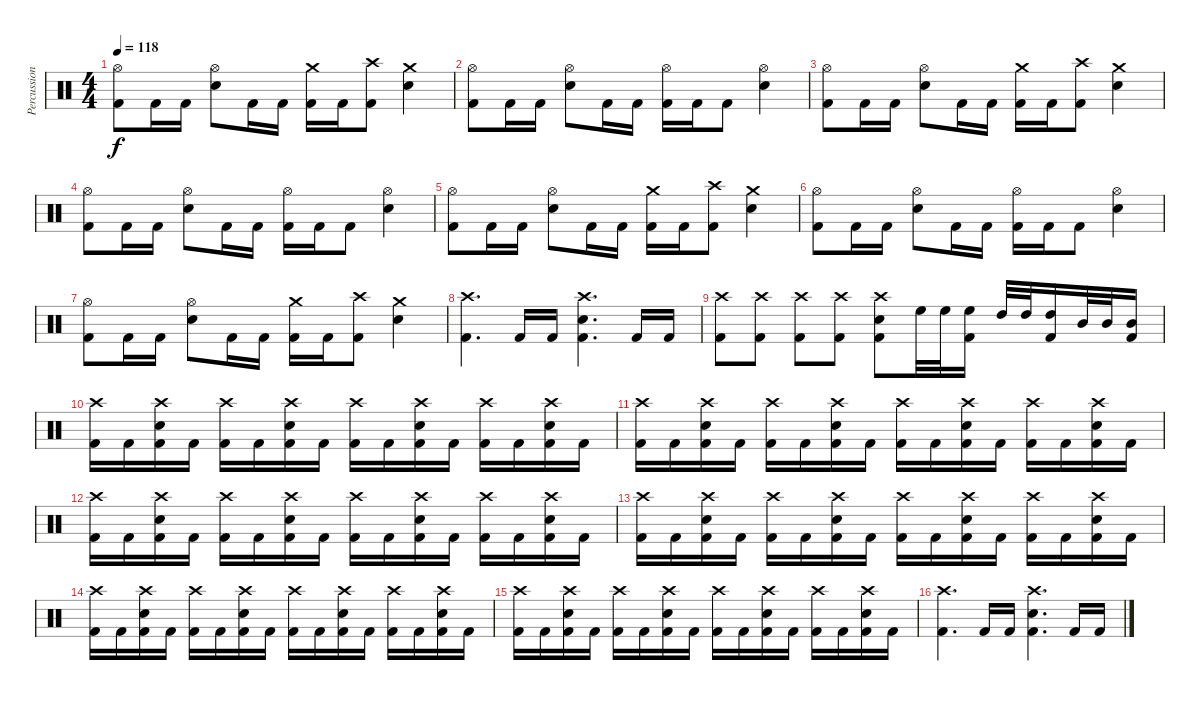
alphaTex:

\track ("Percussions" "Percussion") {instrument percussion}
\staff {score}
\articulation defaults
\ts (4 4)
\tempo 118
\clef neutral
\ks c
("Hi-Hat (open)" "Kick (hit) 2").8{dy f} "Kick (hit) 2".16 "Kick (hit) 2".16 ("Hi-Hat (open)" "Snare (hit) 2").8 "Kick (hit) 2".16 "Kick (hit) 2".16 ("Crash medium (hit)" "Kick (hit) 2").16 "Kick (hit) 2".16 ("Crash high (hit)" "Kick (hit) 2").8 ("Crash medium (hit)" "Snare (hit) 2").4 |
("Hi-Hat (open)" "Kick (hit) 2").8 "Kick (hit) 2".16 "Kick (hit) 2".16 ("Hi-Hat (open)" "Snare (hit) 2").8 "Kick (hit) 2".16 "Kick (hit) 2".16 ("Hi-Hat (open)" "Kick (hit) 2").16 "Kick (hit) 2".16 "Kick (hit) 2".8 ("Hi-Hat (open)" "Snare (hit) 2").4 |
("Hi-Hat (open)" "Kick (hit) 2").8 "Kick (hit) 2".16 "Kick (hit) 2".16 ("Hi-Hat (open)" "Snare (hit) 2").8 "Kick (hit) 2".16 "Kick (hit) 2".16 ("Crash medium (hit)" "Kick (hit) 2").16 "Kick (hit) 2".16 ("Crash high (hit)" "Kick (hit) 2").8 ("Crash medium (hit)" "Snare (hit) 2").4 |
("Hi-Hat (open)" "Kick (hit) 2").8 "Kick (hit) 2".16 "Kick (hit) 2".16 ("Hi-Hat (open)" "Snare (hit) 2").8 "Kick (hit) 2".16 "Kick (hit) 2".16 ("Hi-Hat (open)" "Kick (hit) 2").16 "Kick (hit) 2".16 "Kick (hit) 2".8 ("Hi-Hat (open)" "Snare (hit) 2").4 |
("Hi-Hat (open)" "Kick (hit) 2").8 "Kick (hit) 2".16 "Kick (hit) 2".16 ("Hi-Hat (open)" "Snare (hit) 2").8 "Kick (hit) 2".16 "Kick (hit) 2".16 ("Crash medium (hit)" "Kick (hit) 2").16 "Kick (hit) 2".16 ("Crash high (hit)" "Kick (hit) 2").8 ("Crash medium (hit)" "Snare (hit) 2").4 |
("Hi-Hat (open)" "Kick (hit) 2").8 "Kick (hit) 2".16 "Kick (hit) 2".16 ("Hi-Hat (open)" "Snare (hit) 2").8 "Kick (hit) 2".16 "Kick (hit) 2".16 ("Hi-Hat (open)" "Kick (hit) 2").16 "Kick (hit) 2".16 "Kick (hit) 2".8 ("Hi-Hat (open)" "Snare (hit) 2").4 |
("Hi-Hat (open)" "Kick (hit) 2").8 "Kick (hit) 2".16 "Kick (hit) 2".16 ("Hi-Hat (open)" "Snare (hit) 2").8 "Kick (hit) 2".16 "Kick (hit) 2".16 ("Crash medium (hit)" "Kick (hit) 2").16 "Kick (hit) 2".16 ("Crash high (hit)" "Kick (hit) 2").8 ("Crash medium (hit)" "Snare (hit) 2").4 |
("Crash high (hit)" "Kick (hit) 2").4{d} "Kick (hit) 2".16 "Kick (hit) 2".16 ("Crash high (hit)" "Snare (hit) 2" "Kick (hit) 2").4{d} "Kick (hit) 2".16 "Kick (hit) 2".16 |
("Crash high (hit)" "Kick (hit) 2").8 ("Crash high (hit)" "Kick (hit) 2").8 ("Crash high (hit)" "Kick (hit) 2").8 ("Crash high (hit)" "Kick (hit) 2").8 ("Crash high (hit)" "Snare (hit) 2" "Kick (hit) 2").8 "High Floor Tom (hit)".32 "High Floor Tom (hit)".32 ("High Floor Tom (hit)" "Kick (hit) 2").16 "High Tom (hit)".32 "High Tom (hit)".32 ("High Tom (hit)" "Kick (hit) 2").16 "Mid Tom (hit)".32 "Mid Tom (hit)".32 ("Mid Tom (hit)" "Kick (hit) 2").16 |
("Crash high (hit)" "Kick (hit) 2").16 "Kick (hit) 2".16 ("Crash high (hit)" "Snare (hit) 2" "Kick (hit) 2").16 "Kick (hit) 2".16 ("Crash high (hit)" "Kick (hit) 2").16 "Kick (hit) 2".16 ("Crash high (hit)" "Snare (hit) 2" "Kick (hit) 2").16 "Kick (hit) 2".16 ("Crash high (hit)" "Kick (hit) 2").16 "Kick (hit) 2".16 ("Crash high (hit)" "Snare (hit) 2" "Kick (hit) 2").16 "Kick (hit) 2".16 ("Crash high (hit)" "Kick (hit) 2").16 "Kick (hit) 2".16 ("Crash high (hit)" "Snare (hit) 2" "Kick (hit) 2").16 "Kick (hit) 2".16 |
("Crash high (hit)" "Kick (hit) 2").16 "Kick (hit) 2".16 ("Crash high (hit)" "Snare (hit) 2" "Kick (hit) 2").16 "Kick (hit) 2".16 ("Crash high (hit)" "Kick (hit) 2").16 "Kick (hit) 2".16 ("Crash high (hit)" "Snare (hit) 2" "Kick (hit) 2").16 "Kick (hit) 2".16 ("Crash high (hit)" "Kick (hit) 2").16 "Kick (hit) 2".16 ("Crash high (hit)" "Snare (hit) 2" "Kick (hit) 2").16 "Kick (hit) 2".16 ("Crash high (hit)" "Kick (hit) 2").16 "Kick (hit) 2".16 ("Crash high (hit)" "Snare (hit) 2" "Kick (hit) 2").16 "Kick (hit) 2".16 |
("Crash high (hit)" "Kick (hit) 2").16 "Kick (hit) 2".16 ("Crash high (hit)" "Snare (hit) 2" "Kick (hit) 2").16 "Kick (hit) 2".16 ("Crash high (hit)" "Kick (hit) 2").16 "Kick (hit) 2".16 ("Crash high (hit)" "Snare (hit) 2" "Kick (hit) 2").16 "Kick (hit) 2".16 ("Crash high (hit)" "Kick (hit) 2").16 "Kick (hit) 2".16 ("Crash high (hit)" "Snare (hit) 2" "Kick (hit) 2").16 "Kick (hit) 2".16 ("Crash high (hit)" "Kick (hit) 2").16 "Kick (hit) 2".16 ("Crash high (hit)" "Snare (hit) 2" "Kick (hit) 2").16 "Kick (hit) 2".16 |
("Crash high (hit)" "Kick (hit) 2").16 "Kick (hit) 2".16 ("Crash high (hit)" "Snare (hit) 2" "Kick (hit) 2").16 "Kick (hit) 2".16 ("Crash high (hit)" "Kick (hit) 2").16 "Kick (hit) 2".16 ("Crash high (hit)" "Snare (hit) 2" "Kick (hit) 2").16 "Kick (hit) 2".16 ("Crash high (hit)" "Kick (hit) 2").16 "Kick (hit) 2".16 ("Crash high (hit)" "Snare (hit) 2" "Kick (hit) 2").16 "Kick (hit) 2".16 ("Crash high (hit)" "Kick (hit) 2").16 "Kick (hit) 2".16 ("Crash high (hit)" "Snare (hit) 2" "Kick (hit) 2").16 "Kick (hit) 2".16 |
("Crash high (hit)" "Kick (hit) 2").16 "Kick (hit) 2".16 ("Crash high (hit)" "Snare (hit) 2" "Kick (hit) 2").16 "Kick (hit) 2".16 ("Crash high (hit)" "Kick (hit) 2").16 "Kick (hit) 2".16 ("Crash high (hit)" "Snare (hit) 2" "Kick (hit) 2").16 "Kick (hit) 2".16 ("Crash high (hit)" "Kick (hit) 2").16 "Kick (hit) 2".16 ("Crash high (hit)" "Snare (hit) 2" "Kick (hit) 2").16 "Kick (hit) 2".16 ("Crash high (hit)" "Kick (hit) 2").16 "Kick (hit) 2".16 ("Crash high (hit)" "Snare (hit) 2" "Kick (hit) 2").16 "Kick (hit) 2".16 |
("Crash high (hit)" "Kick (hit) 2").16 "Kick (hit) 2".16 ("Crash high (hit)" "Snare (hit) 2" "Kick (hit) 2").16 "Kick (hit) 2".16 ("Crash high (hit)" "Kick (hit) 2").16 "Kick (hit) 2".16 ("Crash high (hit)" "Snare (hit) 2" "Kick (hit) 2").16 "Kick (hit) 2".16 ("Crash high (hit)" "Kick (hit) 2").16 "Kick (hit) 2".16 ("Crash high (hit)" "Snare (hit) 2" "Kick (hit) 2").16 "Kick (hit) 2".16 ("Crash high (hit)" "Kick (hit) 2").16 "Kick (hit) 2".16 ("Crash high (hit)" "Snare (hit) 2" "Kick (hit) 2").16 "Kick (hit) 2".16 |
("Crash high (hit)" "Kick (hit) 2").4{d} "Kick (hit) 2".16 "Kick (hit) 2".16 ("Crash high (hit)" "Snare (hit) 2" "Kick (hit) 2").4{d} "Kick (hit) 2".16 "Kick (hit) 2".16
